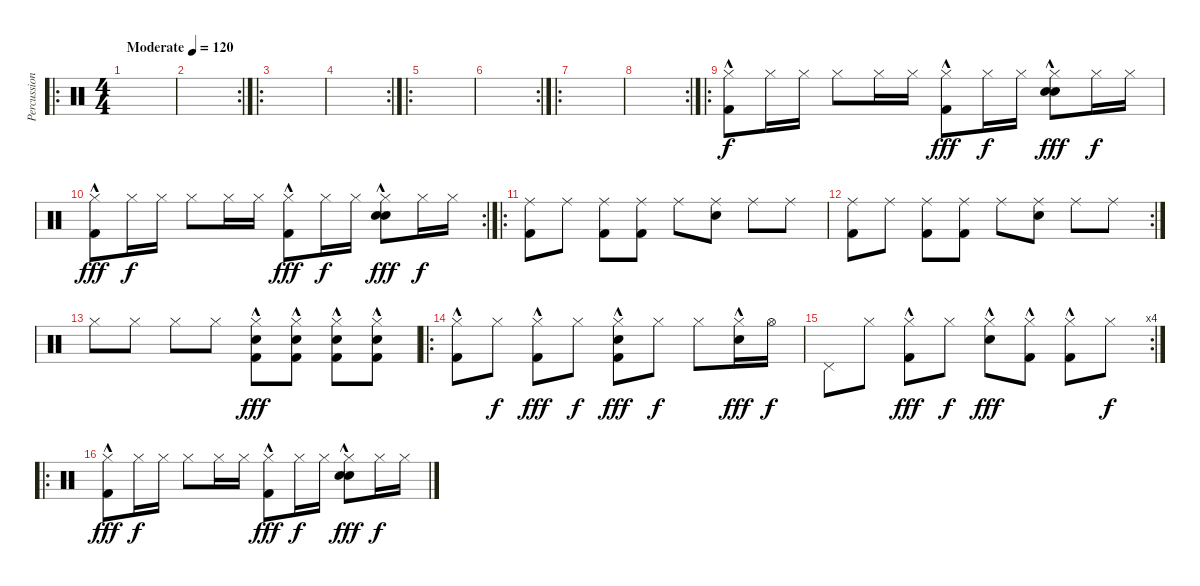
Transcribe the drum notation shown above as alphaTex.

\track ("Percussion" "Percussion") {mute instrument percussion}
\staff {score}
\articulation defaults
\ro
\ts (4 4)
\tempo (120 "Moderate")
\clef neutral
\ks c
|
\rc 2
|
\ro
|
\rc 2
|
\ro
|
\rc 2
|
\ro
|
\rc 2
|
\ro
("Hi-Hat (closed)" "Kick (hit) 2"{hac}).8 "Hi-Hat (closed)".16{dy f} "Hi-Hat (closed)".16 "Hi-Hat (closed)".8 "Hi-Hat (closed)".16 "Hi-Hat (closed)".16 ("Hi-Hat (closed)" "Kick (hit) 2"{hac}).8{dy fff} "Hi-Hat (closed)".16{dy f} "Hi-Hat (closed)".16 ("Hi-Hat (closed)" "Hand Clap (hit)"{hac} "Snare (hit) 2").8{dy fff} "Hi-Hat (closed)".16{dy f} "Hi-Hat (closed)".16 |
\rc 2
("Hi-Hat (closed)" "Kick (hit) 2"{hac}).8{dy fff} "Hi-Hat (closed)".16{dy f} "Hi-Hat (closed)".16 "Hi-Hat (closed)".8 "Hi-Hat (closed)".16 "Hi-Hat (closed)".16 ("Hi-Hat (closed)" "Kick (hit) 2"{hac}).8{dy fff} "Hi-Hat (closed)".16{dy f} "Hi-Hat (closed)".16 ("Hi-Hat (closed)" "Hand Clap (hit)"{hac} "Snare (hit) 2").8{dy fff} "Hi-Hat (closed)".16{dy f} "Hi-Hat (closed)".16 |
\ro
("Ride (middle)" "Kick (hit) 2").8 "Ride (middle)".8 ("Ride (middle)" "Kick (hit) 2").8 ("Ride (middle)" "Kick (hit) 2").8 "Ride (middle)".8 ("Ride (middle)" "Snare (hit) 2").8 "Ride (middle)".8 "Ride (middle)".8 |
\rc 2
("Ride (middle)" "Kick (hit) 2").8 "Ride (middle)".8 ("Ride (middle)" "Kick (hit) 2").8 ("Ride (middle)" "Kick (hit) 2").8 "Ride (middle)".8 ("Ride (middle)" "Snare (hit) 2").8 "Ride (middle)".8 "Ride (middle)".8 |
"Hi-Hat (closed)".8 "Hi-Hat (closed)".8 "Hi-Hat (closed)".8 "Hi-Hat (closed)".8 ("Hi-Hat (closed)"{hac} "Snare (hit) 2"{hac} "Kick (hit) 2"{hac}).8{dy fff} ("Hi-Hat (closed)"{hac} "Snare (hit) 2"{hac} "Kick (hit) 2"{hac}).8 ("Hi-Hat (closed)"{hac} "Snare (hit) 2"{hac} "Kick (hit) 2"{hac}).8 ("Hi-Hat (closed)"{hac} "Snare (hit) 2"{hac} "Kick (hit) 2"{hac}).8 |
\ro
("Hi-Hat (closed)" "Kick (hit) 2"{hac}).8 "Hi-Hat (closed)".8{dy f} ("Hi-Hat (closed)" "Kick (hit) 2"{hac}).8{dy fff} "Hi-Hat (closed)".8{dy f} ("Hi-Hat (closed)" "Snare (hit) 2"{hac} "Kick (hit) 2"{hac}).8{dy fff} "Hi-Hat (closed)".8{dy f} "Hi-Hat (closed)".8 ("Hi-Hat (closed)" "Snare (hit) 2"{hac}).16{dy fff} "Hi-Hat (open)".16{dy f} |
\rc 4 "Pedal Hi-Hat (hit)".8 "Hi-Hat (closed)".8
("Hi-Hat (closed)" "Kick (hit) 2"{hac}).8{dy fff} "Hi-Hat (closed)".8{dy f} ("Hi-Hat (closed)" "Snare (hit) 2"{hac}).8{dy fff} ("Hi-Hat (closed)" "Kick (hit) 2"{hac}).8 ("Hi-Hat (closed)" "Kick (hit) 2"{hac}).8 "Hi-Hat (closed)".8{dy f} |
\ro
("Hi-Hat (closed)" "Kick (hit) 2"{hac}).8{dy fff} "Hi-Hat (closed)".16{dy f} "Hi-Hat (closed)".16 "Hi-Hat (closed)".8 "Hi-Hat (closed)".16 "Hi-Hat (closed)".16 ("Hi-Hat (closed)" "Kick (hit) 2"{hac}).8{dy fff} "Hi-Hat (closed)".16{dy f} "Hi-Hat (closed)".16 ("Hi-Hat (closed)" "Hand Clap (hit)"{hac} "Snare (hit) 2").8{dy fff} "Hi-Hat (closed)".16{dy f} "Hi-Hat (closed)".16
